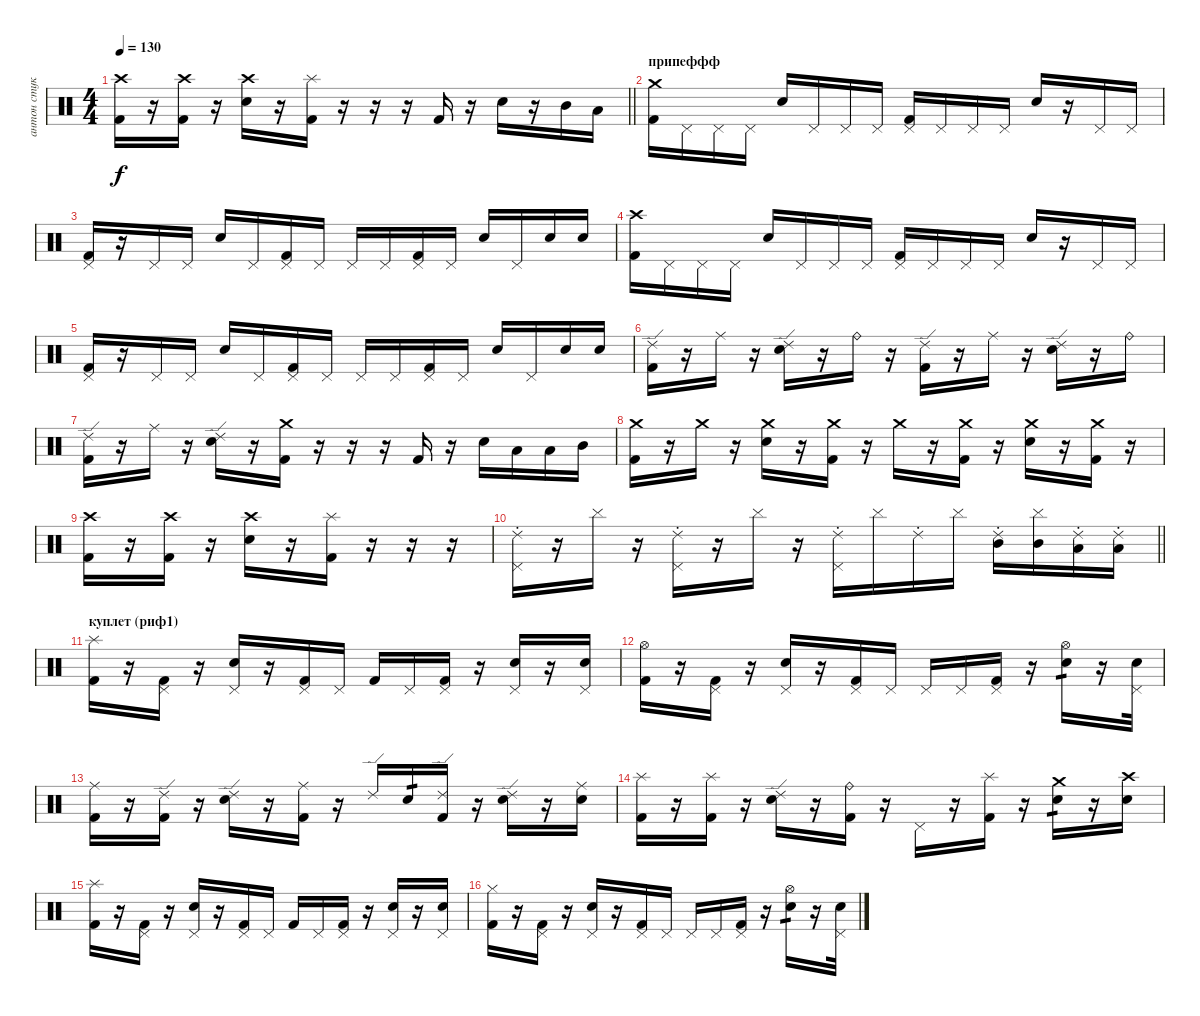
\track ("антон стукачь" "антон стук") {instrument percussion}
\staff {score}
\articulation defaults
\ts (4 4)
\tempo 130
\clef neutral
\barLineRight lightlight
\ks c
("Crash high (hit)" "Kick (hit) 2").16{dy f} r.16 ("Crash high (hit)" "Kick (hit) 2").16 r.16 ("Crash high (hit)" "Electric Snare (hit)").16 r.16 ("Splash (hit)" "Kick (hit) 2").16 r.16 r.16 r.16 "Kick (hit) 2".16 r.16 "Electric Snare (hit)".16 r.16 "Mid Tom (hit)".16 "Low Tom (hit)".16 |
\section ("" "припеффф")
("Crash medium (hit)" "Kick (hit) 2").16 "Pedal Hi-Hat (hit)".16 "Pedal Hi-Hat (hit)".16 "Pedal Hi-Hat (hit)".16 "Electric Snare (hit)".16 "Pedal Hi-Hat (hit)".16 "Pedal Hi-Hat (hit)".16 "Pedal Hi-Hat (hit)".16 ("Pedal Hi-Hat (hit)" "Kick (hit) 2").16 "Pedal Hi-Hat (hit)".16 "Pedal Hi-Hat (hit)".16 "Pedal Hi-Hat (hit)".16 "Electric Snare (hit)".16 r.16 "Pedal Hi-Hat (hit)".16 "Pedal Hi-Hat (hit)".16 |
("Pedal Hi-Hat (hit)" "Kick (hit) 2").16 r.16 "Pedal Hi-Hat (hit)".16 "Pedal Hi-Hat (hit)".16 "Electric Snare (hit)".16 "Pedal Hi-Hat (hit)".16 ("Pedal Hi-Hat (hit)" "Kick (hit) 2").16 "Pedal Hi-Hat (hit)".16 "Pedal Hi-Hat (hit)".16 "Pedal Hi-Hat (hit)".16 ("Pedal Hi-Hat (hit)" "Kick (hit) 2").16 "Pedal Hi-Hat (hit)".16 "Electric Snare (hit)".16 "Pedal Hi-Hat (hit)".16 "Electric Snare (hit)".16 "Electric Snare (hit)".16 |
("Crash high (hit)" "Kick (hit) 2").16 "Pedal Hi-Hat (hit)".16 "Pedal Hi-Hat (hit)".16 "Pedal Hi-Hat (hit)".16 "Electric Snare (hit)".16 "Pedal Hi-Hat (hit)".16 "Pedal Hi-Hat (hit)".16 "Pedal Hi-Hat (hit)".16 ("Pedal Hi-Hat (hit)" "Kick (hit) 2").16 "Pedal Hi-Hat (hit)".16 "Pedal Hi-Hat (hit)".16 "Pedal Hi-Hat (hit)".16 "Electric Snare (hit)".16 r.16 "Pedal Hi-Hat (hit)".16 "Pedal Hi-Hat (hit)".16 |
("Pedal Hi-Hat (hit)" "Kick (hit) 2").16 r.16 "Pedal Hi-Hat (hit)".16 "Pedal Hi-Hat (hit)".16 "Electric Snare (hit)".16 "Pedal Hi-Hat (hit)".16 ("Pedal Hi-Hat (hit)" "Kick (hit) 2").16 "Pedal Hi-Hat (hit)".16 "Pedal Hi-Hat (hit)".16 "Pedal Hi-Hat (hit)".16 ("Pedal Hi-Hat (hit)" "Kick (hit) 2").16 "Pedal Hi-Hat (hit)".16 "Electric Snare (hit)".16 "Pedal Hi-Hat (hit)".16 "Electric Snare (hit)".16 "Electric Snare (hit)".16 |
("Ride (edge) 2" "Kick (hit) 2").16 r.16 "Ride (middle)".16 r.16 ("Ride (edge) 2" "Electric Snare (hit)").16 r.16 "Ride (bell)".16 r.16 ("Ride (edge) 2" "Kick (hit) 2").16 r.16 "Ride (middle)".16 r.16 ("Ride (edge) 2" "Electric Snare (hit)").16 r.16 "Ride (bell)".16 |
("Ride (edge) 2" "Kick (hit) 2").16 r.16 "Ride (middle)".16 r.16 ("Ride (edge) 2" "Electric Snare (hit)").16 r.16 ("Crash medium (hit)" "Kick (hit) 2").16 r.16 r.16 r.16 "Kick (hit) 2".16 r.16 "Electric Snare (hit)".16 "Low Tom (hit)".16 "Low Tom (hit)".16 "Mid Tom (hit)".16 |
("Crash medium (hit)" "Kick (hit) 2").16 r.16 "Crash medium (hit)".16 r.16 ("Crash medium (hit)" "Electric Snare (hit)").16 r.16 ("Crash medium (hit)" "Kick (hit) 2").16 r.16 "Crash medium (hit)".16 r.16 ("Crash medium (hit)" "Kick (hit) 2").16 r.16 ("Crash medium (hit)" "Electric Snare (hit)").16 r.16 ("Crash medium (hit)" "Kick (hit) 2").16 r.16 |
("Crash high (hit)" "Kick (hit) 2").16 r.16 ("Crash high (hit)" "Kick (hit) 2").16 r.16 ("Crash high (hit)" "Electric Snare (hit)").16 r.16 ("Splash (hit)" "Kick (hit) 2").16 r.16 r.16 r.16 |
\barLineRight lightlight
("Pedal Hi-Hat (hit)" "Ride (choke) 2").16 r.16 "Cymbal (hit)".16 r.16 ("Pedal Hi-Hat (hit)" "Ride (choke) 2").16 r.16 "Cymbal (hit)".16 r.16 ("Pedal Hi-Hat (hit)" "Ride (choke) 2").16 "Cymbal (hit)".16 "Ride (choke) 2".16 "Cymbal (hit)".16 ("Mid Tom (hit)" "Ride (choke) 2").16 ("Mid Tom (hit)" "Cymbal (hit)").16 ("Low Tom (hit)" "Ride (choke) 2").16 ("Low Tom (hit)" "Ride (choke) 2").16 |
\section ("" "куплет (риф1)")
("Splash (hit)" "Kick (hit) 2").16 r.16 ("Pedal Hi-Hat (hit)" "Kick (hit) 2").16 r.16 ("Pedal Hi-Hat (hit)" "Electric Snare (hit)").16 r.16 ("Pedal Hi-Hat (hit)" "Kick (hit) 2").16 "Pedal Hi-Hat (hit)".16 "Kick (hit) 2".16 "Pedal Hi-Hat (hit)".16 ("Pedal Hi-Hat (hit)" "Kick (hit) 2").16 r.16 ("Pedal Hi-Hat (hit)" "Electric Snare (hit)").16 r.16 ("Pedal Hi-Hat (hit)" "Electric Snare (hit)").16 |
("Hi-Hat (open)" "Kick (hit) 2").16 r.16 ("Pedal Hi-Hat (hit)" "Kick (hit) 2").16 r.16 ("Pedal Hi-Hat (hit)" "Electric Snare (hit)").16 r.16 ("Pedal Hi-Hat (hit)" "Kick (hit) 2").16 "Pedal Hi-Hat (hit)".16 "Pedal Hi-Hat (hit)".16 "Pedal Hi-Hat (hit)".16 ("Pedal Hi-Hat (hit)" "Kick (hit) 2").16 r.16 ("Hi-Hat (open)" "Electric Snare (hit)").16{tp 1} r.16 ("Pedal Hi-Hat (hit)" "Electric Snare (hit)").32 |
("Ride (middle)" "Kick (hit) 2").16 r.16 ("Ride (edge) 2" "Kick (hit) 2").16 r.16 ("Ride (edge) 2" "Electric Snare (hit)").16 r.16 ("Ride (middle)" "Kick (hit) 2").16 r.16 "Ride (edge) 2".16 "Electric Snare (hit)".16{tp 1} ("Ride (edge) 2" "Kick (hit) 2").16 r.16 ("Ride (edge) 2" "Electric Snare (hit)").16 r.16 ("Ride (middle)" "Electric Snare (hit)").16 |
("Splash (hit)" "Kick (hit) 2").16 r.16 ("Splash (hit)" "Kick (hit) 2").16 r.16 ("Ride (edge) 2" "Electric Snare (hit)").16 r.16 ("Ride (bell)" "Kick (hit) 2").16 r.16 "Pedal Hi-Hat (hit)".16 r.16 ("Splash (hit)" "Kick (hit) 2").16 r.16 ("Crash medium (hit)" "Electric Snare (hit)").16{tp 1} r.16 ("Crash high (hit)" "Electric Snare (hit)").16 |
("Splash (hit)" "Kick (hit) 2").16 r.16 ("Pedal Hi-Hat (hit)" "Kick (hit) 2").16 r.16 ("Pedal Hi-Hat (hit)" "Electric Snare (hit)").16 r.16 ("Pedal Hi-Hat (hit)" "Kick (hit) 2").16 "Pedal Hi-Hat (hit)".16 "Kick (hit) 2".16 "Pedal Hi-Hat (hit)".16 ("Pedal Hi-Hat (hit)" "Kick (hit) 2").16 r.16 ("Pedal Hi-Hat (hit)" "Electric Snare (hit)").16 r.16 ("Pedal Hi-Hat (hit)" "Electric Snare (hit)").16 |
("Hi-Hat (closed)" "Kick (hit) 2").16 r.16 ("Pedal Hi-Hat (hit)" "Kick (hit) 2").16 r.16 ("Pedal Hi-Hat (hit)" "Electric Snare (hit)").16 r.16 ("Pedal Hi-Hat (hit)" "Kick (hit) 2").16 "Pedal Hi-Hat (hit)".16 "Pedal Hi-Hat (hit)".16 "Pedal Hi-Hat (hit)".16 ("Pedal Hi-Hat (hit)" "Kick (hit) 2").16 r.16 ("Hi-Hat (open)" "Electric Snare (hit)").16{tp 1} r.16 ("Pedal Hi-Hat (hit)" "Electric Snare (hit)").32
